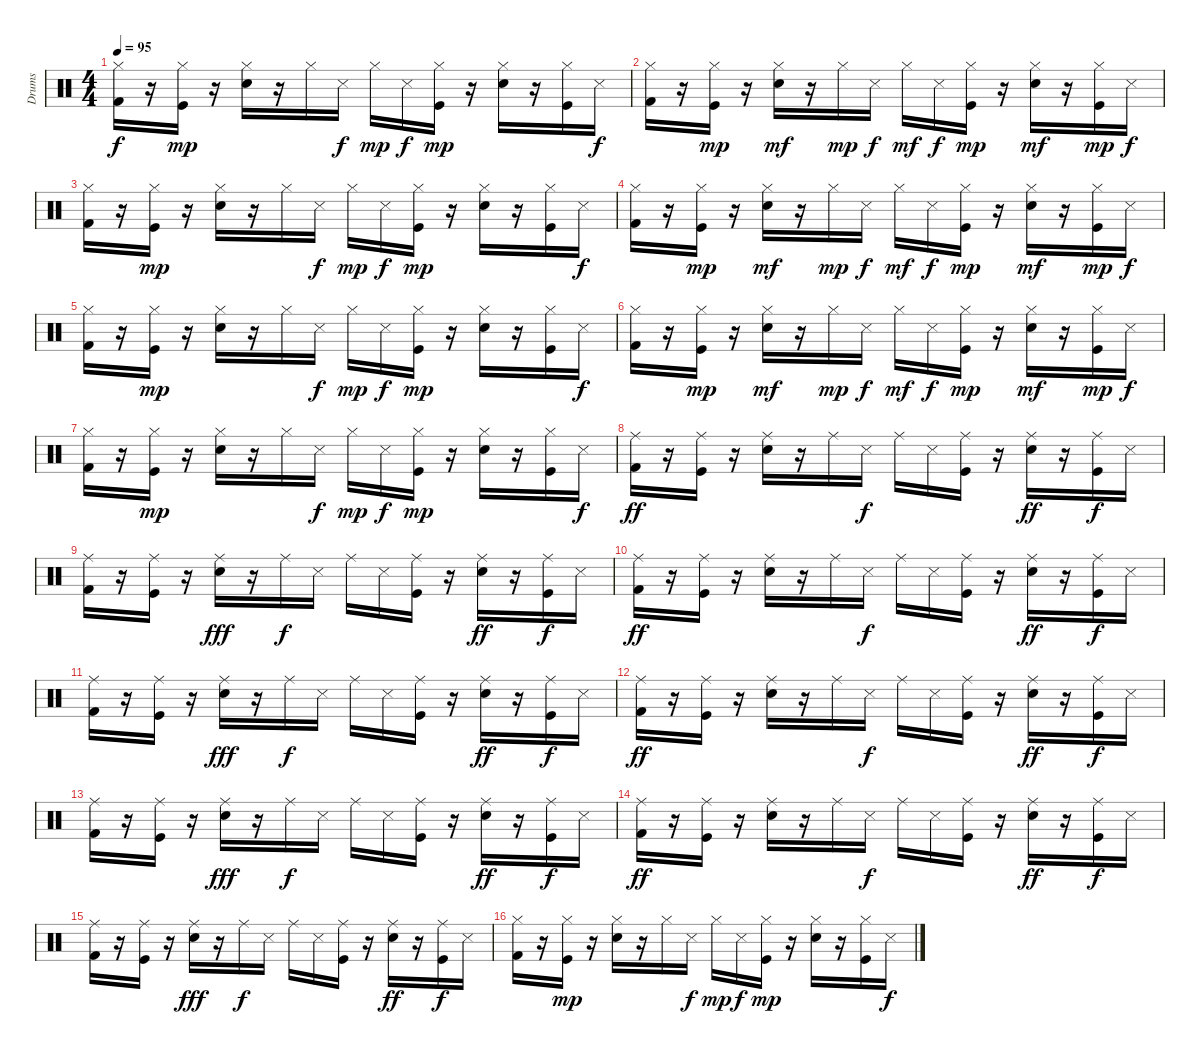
\track ("Drums" "Drums") {instrument percussion}
\staff {score}
\articulation defaults
\ts (4 4)
\tempo 95
\clef neutral
\ks c
("Kick (hit) 2" "Hi-Hat (closed)").16{dy f} r.16 ("Kick (hit)" "Hi-Hat (closed)").16{dy mp} r.16 ("Snare (hit) 2" "Hi-Hat (closed)").16 r.16 "Hi-Hat (closed)".16 "Snare (side stick) 3".16{dy f} "Hi-Hat (closed)".16{dy mp} "Snare (side stick) 3".16{dy f} ("Kick (hit)" "Hi-Hat (closed)").16{dy mp} r.16 ("Snare (hit) 2" "Hi-Hat (closed)").16 r.16 ("Kick (hit)" "Hi-Hat (closed)").16 "Snare (side stick) 3".16{dy f} |
("Kick (hit) 2" "Hi-Hat (closed)").16 r.16 ("Kick (hit)" "Hi-Hat (closed)").16{dy mp} r.16 ("Snare (hit) 2" "Hi-Hat (closed)").16{dy mf} r.16 "Hi-Hat (closed)".16{dy mp} "Snare (side stick) 3".16{dy f} "Hi-Hat (closed)".16{dy mf} "Snare (side stick) 3".16{dy f} ("Kick (hit)" "Hi-Hat (closed)").16{dy mp} r.16 ("Snare (hit) 2" "Hi-Hat (closed)").16{dy mf} r.16 ("Kick (hit)" "Hi-Hat (closed)").16{dy mp} "Snare (side stick) 3".16{dy f} |
("Kick (hit) 2" "Hi-Hat (closed)").16 r.16 ("Kick (hit)" "Hi-Hat (closed)").16{dy mp} r.16 ("Snare (hit) 2" "Hi-Hat (closed)").16 r.16 "Hi-Hat (closed)".16 "Snare (side stick) 3".16{dy f} "Hi-Hat (closed)".16{dy mp} "Snare (side stick) 3".16{dy f} ("Kick (hit)" "Hi-Hat (closed)").16{dy mp} r.16 ("Snare (hit) 2" "Hi-Hat (closed)").16 r.16 ("Kick (hit)" "Hi-Hat (closed)").16 "Snare (side stick) 3".16{dy f} |
("Kick (hit) 2" "Hi-Hat (closed)").16 r.16 ("Kick (hit)" "Hi-Hat (closed)").16{dy mp} r.16 ("Snare (hit) 2" "Hi-Hat (closed)").16{dy mf} r.16 "Hi-Hat (closed)".16{dy mp} "Snare (side stick) 3".16{dy f} "Hi-Hat (closed)".16{dy mf} "Snare (side stick) 3".16{dy f} ("Kick (hit)" "Hi-Hat (closed)").16{dy mp} r.16 ("Snare (hit) 2" "Hi-Hat (closed)").16{dy mf} r.16 ("Kick (hit)" "Hi-Hat (closed)").16{dy mp} "Snare (side stick) 3".16{dy f} |
("Kick (hit) 2" "Hi-Hat (closed)").16 r.16 ("Kick (hit)" "Hi-Hat (closed)").16{dy mp} r.16 ("Snare (hit) 2" "Hi-Hat (closed)").16 r.16 "Hi-Hat (closed)".16 "Snare (side stick) 3".16{dy f} "Hi-Hat (closed)".16{dy mp} "Snare (side stick) 3".16{dy f} ("Kick (hit)" "Hi-Hat (closed)").16{dy mp} r.16 ("Snare (hit) 2" "Hi-Hat (closed)").16 r.16 ("Kick (hit)" "Hi-Hat (closed)").16 "Snare (side stick) 3".16{dy f} |
("Kick (hit) 2" "Hi-Hat (closed)").16 r.16 ("Kick (hit)" "Hi-Hat (closed)").16{dy mp} r.16 ("Snare (hit) 2" "Hi-Hat (closed)").16{dy mf} r.16 "Hi-Hat (closed)".16{dy mp} "Snare (side stick) 3".16{dy f} "Hi-Hat (closed)".16{dy mf} "Snare (side stick) 3".16{dy f} ("Kick (hit)" "Hi-Hat (closed)").16{dy mp} r.16 ("Snare (hit) 2" "Hi-Hat (closed)").16{dy mf} r.16 ("Kick (hit)" "Hi-Hat (closed)").16{dy mp} "Snare (side stick) 3".16{dy f} |
("Kick (hit) 2" "Hi-Hat (closed)").16 r.16 ("Kick (hit)" "Hi-Hat (closed)").16{dy mp} r.16 ("Snare (hit) 2" "Hi-Hat (closed)").16 r.16 "Hi-Hat (closed)".16 "Snare (side stick) 3".16{dy f} "Hi-Hat (closed)".16{dy mp} "Snare (side stick) 3".16{dy f} ("Kick (hit)" "Hi-Hat (closed)").16{dy mp} r.16 ("Snare (hit) 2" "Hi-Hat (closed)").16 r.16 ("Kick (hit)" "Hi-Hat (closed)").16 "Snare (side stick) 3".16{dy f} |
("Kick (hit) 2" "Ride (middle)").16{dy ff} r.16 ("Kick (hit)" "Ride (middle)").16 r.16 ("Snare (hit) 2" "Ride (middle)").16 r.16 "Ride (middle)".16 "Snare (side stick) 3".16{dy f} "Ride (middle)".16 "Snare (side stick) 3".16 ("Kick (hit)" "Ride (middle)").16 r.16 ("Snare (hit) 2" "Ride (middle)").16{dy ff} r.16 ("Kick (hit)" "Ride (middle)").16{dy f} "Snare (side stick) 3".16 |
("Kick (hit) 2" "Ride (middle)").16 r.16 ("Kick (hit)" "Ride (middle)").16 r.16 ("Snare (hit) 2" "Ride (middle)").16{dy fff} r.16 "Ride (middle)".16{dy f} "Snare (side stick) 3".16 "Ride (middle)".16 "Snare (side stick) 3".16 ("Kick (hit)" "Ride (middle)").16 r.16 ("Snare (hit) 2" "Ride (middle)").16{dy ff} r.16 ("Kick (hit)" "Ride (middle)").16{dy f} "Snare (side stick) 3".16 |
("Kick (hit) 2" "Ride (middle)").16{dy ff} r.16 ("Kick (hit)" "Ride (middle)").16 r.16 ("Snare (hit) 2" "Ride (middle)").16 r.16 "Ride (middle)".16 "Snare (side stick) 3".16{dy f} "Ride (middle)".16 "Snare (side stick) 3".16 ("Kick (hit)" "Ride (middle)").16 r.16 ("Snare (hit) 2" "Ride (middle)").16{dy ff} r.16 ("Kick (hit)" "Ride (middle)").16{dy f} "Snare (side stick) 3".16 |
("Kick (hit) 2" "Ride (middle)").16 r.16 ("Kick (hit)" "Ride (middle)").16 r.16 ("Snare (hit) 2" "Ride (middle)").16{dy fff} r.16 "Ride (middle)".16{dy f} "Snare (side stick) 3".16 "Ride (middle)".16 "Snare (side stick) 3".16 ("Kick (hit)" "Ride (middle)").16 r.16 ("Snare (hit) 2" "Ride (middle)").16{dy ff} r.16 ("Kick (hit)" "Ride (middle)").16{dy f} "Snare (side stick) 3".16 |
("Kick (hit) 2" "Ride (middle)").16{dy ff} r.16 ("Kick (hit)" "Ride (middle)").16 r.16 ("Snare (hit) 2" "Ride (middle)").16 r.16 "Ride (middle)".16 "Snare (side stick) 3".16{dy f} "Ride (middle)".16 "Snare (side stick) 3".16 ("Kick (hit)" "Ride (middle)").16 r.16 ("Snare (hit) 2" "Ride (middle)").16{dy ff} r.16 ("Kick (hit)" "Ride (middle)").16{dy f} "Snare (side stick) 3".16 |
("Kick (hit) 2" "Ride (middle)").16 r.16 ("Kick (hit)" "Ride (middle)").16 r.16 ("Snare (hit) 2" "Ride (middle)").16{dy fff} r.16 "Ride (middle)".16{dy f} "Snare (side stick) 3".16 "Ride (middle)".16 "Snare (side stick) 3".16 ("Kick (hit)" "Ride (middle)").16 r.16 ("Snare (hit) 2" "Ride (middle)").16{dy ff} r.16 ("Kick (hit)" "Ride (middle)").16{dy f} "Snare (side stick) 3".16 |
("Kick (hit) 2" "Ride (middle)").16{dy ff} r.16 ("Kick (hit)" "Ride (middle)").16 r.16 ("Snare (hit) 2" "Ride (middle)").16 r.16 "Ride (middle)".16 "Snare (side stick) 3".16{dy f} "Ride (middle)".16 "Snare (side stick) 3".16 ("Kick (hit)" "Ride (middle)").16 r.16 ("Snare (hit) 2" "Ride (middle)").16{dy ff} r.16 ("Kick (hit)" "Ride (middle)").16{dy f} "Snare (side stick) 3".16 |
("Kick (hit) 2" "Ride (middle)").16 r.16 ("Kick (hit)" "Ride (middle)").16 r.16 ("Snare (hit) 2" "Ride (middle)").16{dy fff} r.16 "Ride (middle)".16{dy f} "Snare (side stick) 3".16 "Ride (middle)".16 "Snare (side stick) 3".16 ("Kick (hit)" "Ride (middle)").16 r.16 ("Snare (hit) 2" "Ride (middle)").16{dy ff} r.16 ("Kick (hit)" "Ride (middle)").16{dy f} "Snare (side stick) 3".16 |
("Kick (hit) 2" "Hi-Hat (closed)").16 r.16 ("Kick (hit)" "Hi-Hat (closed)").16{dy mp} r.16 ("Snare (hit) 2" "Hi-Hat (closed)").16 r.16 "Hi-Hat (closed)".16 "Snare (side stick) 3".16{dy f} "Hi-Hat (closed)".16{dy mp} "Snare (side stick) 3".16{dy f} ("Kick (hit)" "Hi-Hat (closed)").16{dy mp} r.16 ("Snare (hit) 2" "Hi-Hat (closed)").16 r.16 ("Kick (hit)" "Hi-Hat (closed)").16 "Snare (side stick) 3".16{dy f}
